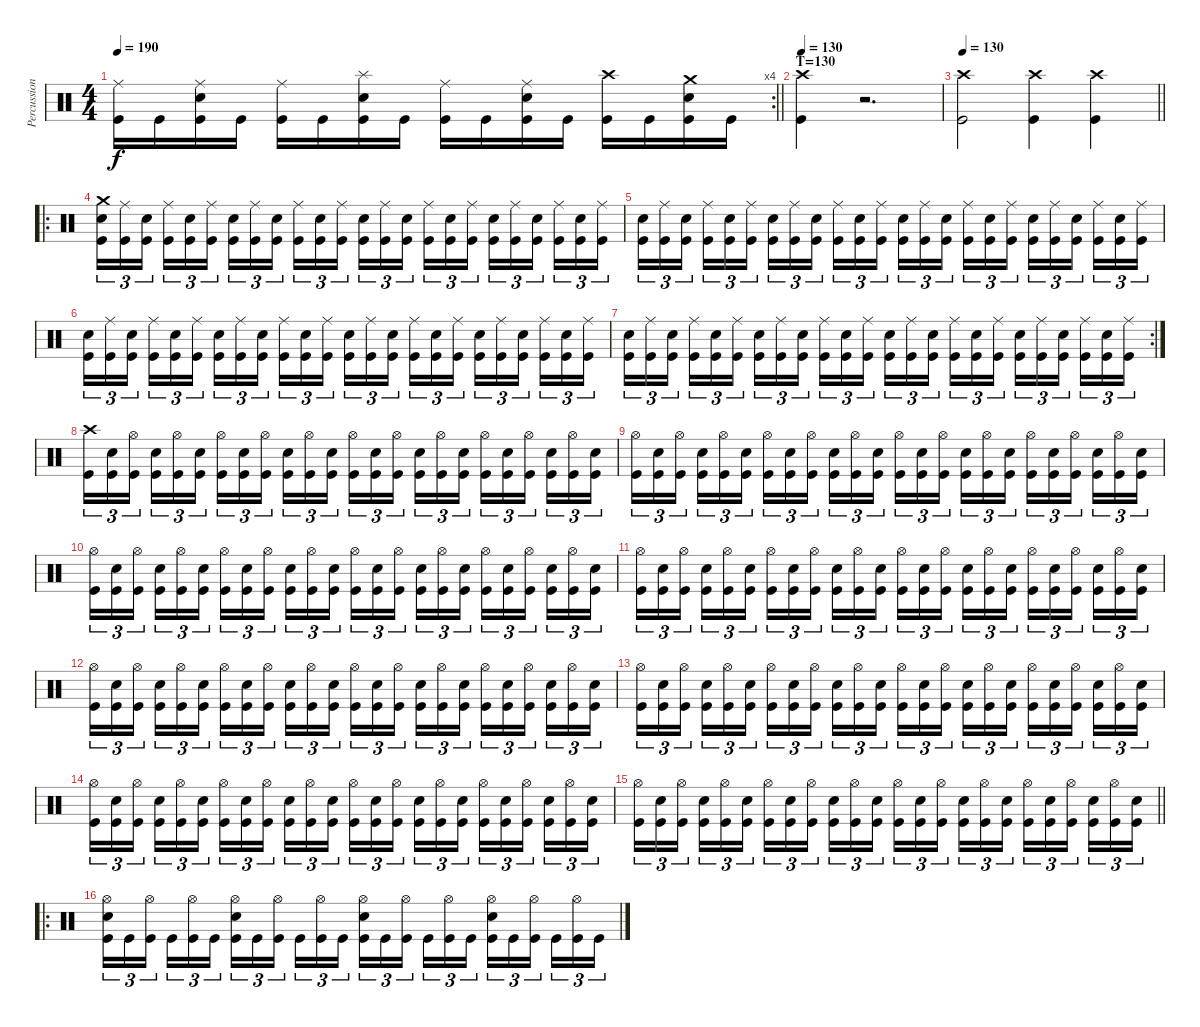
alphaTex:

\track ("Percussion" "Percussion") {instrument percussion}
\staff {score}
\articulation defaults
\rc 4
\ts (4 4)
\tempo 190
\clef neutral
\barLineRight lightlight
\ks c
("Ride (middle)" "Kick (hit)").16{dy f} "Kick (hit)".16 ("Ride (middle)" "Electric Snare (hit)" "Kick (hit)").16 "Kick (hit)".16 ("Ride (middle)" "Kick (hit)").16 "Kick (hit)".16 ("Splash (hit)" "Electric Snare (hit)" "Kick (hit)").16 "Kick (hit)".16 ("Ride (middle)" "Kick (hit)").16 "Kick (hit)".16 ("Ride (middle)" "Electric Snare (hit)" "Kick (hit)").16 "Kick (hit)".16 ("Crash high (hit)" "Kick (hit)").16 "Kick (hit)".16 ("Crash medium (hit)" "Electric Snare (hit)" "Kick (hit)").16 "Kick (hit)".16 |
\section ("" "T=130")
\tempo 130
("Crash high (hit)" "Kick (hit)").4 r.2{d} |
\tempo 130
\barLineRight lightlight
("Crash high (hit)" "Kick (hit)").2 ("Crash high (hit)" "Kick (hit)").4 ("Crash high (hit)" "Kick (hit)").4 |
\ro
("Crash medium (hit)" "Electric Snare (hit)" "Kick (hit)").16{tu (3 2)} ("Ride (middle)" "Kick (hit)").16{tu (3 2)} ("Electric Snare (hit)" "Kick (hit)").16{tu (3 2) beam splitsecondary} ("Ride (middle)" "Kick (hit)").16{tu (3 2)} ("Electric Snare (hit)" "Kick (hit)").16{tu (3 2)} ("Ride (middle)" "Kick (hit)").16{tu (3 2)} ("Electric Snare (hit)" "Kick (hit)").16{tu (3 2)} ("Ride (middle)" "Kick (hit)").16{tu (3 2)} ("Electric Snare (hit)" "Kick (hit)").16{tu (3 2) beam splitsecondary} ("Ride (middle)" "Kick (hit)").16{tu (3 2)} ("Electric Snare (hit)" "Kick (hit)").16{tu (3 2)} ("Ride (middle)" "Kick (hit)").16{tu (3 2)} ("Electric Snare (hit)" "Kick (hit)").16{tu (3 2)} ("Ride (middle)" "Kick (hit)").16{tu (3 2)} ("Electric Snare (hit)" "Kick (hit)").16{tu (3 2) beam splitsecondary} ("Ride (middle)" "Kick (hit)").16{tu (3 2)} ("Electric Snare (hit)" "Kick (hit)").16{tu (3 2)} ("Ride (middle)" "Kick (hit)").16{tu (3 2)} ("Electric Snare (hit)" "Kick (hit)").16{tu (3 2)} ("Ride (middle)" "Kick (hit)").16{tu (3 2)} ("Electric Snare (hit)" "Kick (hit)").16{tu (3 2) beam splitsecondary} ("Ride (middle)" "Kick (hit)").16{tu (3 2)} ("Electric Snare (hit)" "Kick (hit)").16{tu (3 2)} ("Ride (middle)" "Kick (hit)").16{tu (3 2)} |
("Electric Snare (hit)" "Kick (hit)").16{tu (3 2)} ("Ride (middle)" "Kick (hit)").16{tu (3 2)} ("Electric Snare (hit)" "Kick (hit)").16{tu (3 2) beam splitsecondary} ("Ride (middle)" "Kick (hit)").16{tu (3 2)} ("Electric Snare (hit)" "Kick (hit)").16{tu (3 2)} ("Ride (middle)" "Kick (hit)").16{tu (3 2)} ("Electric Snare (hit)" "Kick (hit)").16{tu (3 2)} ("Ride (middle)" "Kick (hit)").16{tu (3 2)} ("Electric Snare (hit)" "Kick (hit)").16{tu (3 2) beam splitsecondary} ("Ride (middle)" "Kick (hit)").16{tu (3 2)} ("Electric Snare (hit)" "Kick (hit)").16{tu (3 2)} ("Ride (middle)" "Kick (hit)").16{tu (3 2)} ("Electric Snare (hit)" "Kick (hit)").16{tu (3 2)} ("Ride (middle)" "Kick (hit)").16{tu (3 2)} ("Electric Snare (hit)" "Kick (hit)").16{tu (3 2) beam splitsecondary} ("Ride (middle)" "Kick (hit)").16{tu (3 2)} ("Electric Snare (hit)" "Kick (hit)").16{tu (3 2)} ("Ride (middle)" "Kick (hit)").16{tu (3 2)} ("Electric Snare (hit)" "Kick (hit)").16{tu (3 2)} ("Ride (middle)" "Kick (hit)").16{tu (3 2)} ("Electric Snare (hit)" "Kick (hit)").16{tu (3 2) beam splitsecondary} ("Ride (middle)" "Kick (hit)").16{tu (3 2)} ("Electric Snare (hit)" "Kick (hit)").16{tu (3 2)} ("Ride (middle)" "Kick (hit)").16{tu (3 2)} |
("Electric Snare (hit)" "Kick (hit)").16{tu (3 2)} ("Ride (middle)" "Kick (hit)").16{tu (3 2)} ("Electric Snare (hit)" "Kick (hit)").16{tu (3 2) beam splitsecondary} ("Ride (middle)" "Kick (hit)").16{tu (3 2)} ("Electric Snare (hit)" "Kick (hit)").16{tu (3 2)} ("Ride (middle)" "Kick (hit)").16{tu (3 2)} ("Electric Snare (hit)" "Kick (hit)").16{tu (3 2)} ("Ride (middle)" "Kick (hit)").16{tu (3 2)} ("Electric Snare (hit)" "Kick (hit)").16{tu (3 2) beam splitsecondary} ("Ride (middle)" "Kick (hit)").16{tu (3 2)} ("Electric Snare (hit)" "Kick (hit)").16{tu (3 2)} ("Ride (middle)" "Kick (hit)").16{tu (3 2)} ("Electric Snare (hit)" "Kick (hit)").16{tu (3 2)} ("Ride (middle)" "Kick (hit)").16{tu (3 2)} ("Electric Snare (hit)" "Kick (hit)").16{tu (3 2) beam splitsecondary} ("Ride (middle)" "Kick (hit)").16{tu (3 2)} ("Electric Snare (hit)" "Kick (hit)").16{tu (3 2)} ("Ride (middle)" "Kick (hit)").16{tu (3 2)} ("Electric Snare (hit)" "Kick (hit)").16{tu (3 2)} ("Ride (middle)" "Kick (hit)").16{tu (3 2)} ("Electric Snare (hit)" "Kick (hit)").16{tu (3 2) beam splitsecondary} ("Ride (middle)" "Kick (hit)").16{tu (3 2)} ("Electric Snare (hit)" "Kick (hit)").16{tu (3 2)} ("Ride (middle)" "Kick (hit)").16{tu (3 2)} |
\rc 2
("Electric Snare (hit)" "Kick (hit)").16{tu (3 2)} ("Ride (middle)" "Kick (hit)").16{tu (3 2)} ("Electric Snare (hit)" "Kick (hit)").16{tu (3 2) beam splitsecondary} ("Ride (middle)" "Kick (hit)").16{tu (3 2)} ("Electric Snare (hit)" "Kick (hit)").16{tu (3 2)} ("Ride (middle)" "Kick (hit)").16{tu (3 2)} ("Electric Snare (hit)" "Kick (hit)").16{tu (3 2)} ("Ride (middle)" "Kick (hit)").16{tu (3 2)} ("Electric Snare (hit)" "Kick (hit)").16{tu (3 2) beam splitsecondary} ("Ride (middle)" "Kick (hit)").16{tu (3 2)} ("Electric Snare (hit)" "Kick (hit)").16{tu (3 2)} ("Ride (middle)" "Kick (hit)").16{tu (3 2)} ("Electric Snare (hit)" "Kick (hit)").16{tu (3 2)} ("Ride (middle)" "Kick (hit)").16{tu (3 2)} ("Electric Snare (hit)" "Kick (hit)").16{tu (3 2) beam splitsecondary} ("Ride (middle)" "Kick (hit)").16{tu (3 2)} ("Electric Snare (hit)" "Kick (hit)").16{tu (3 2)} ("Ride (middle)" "Kick (hit)").16{tu (3 2)} ("Electric Snare (hit)" "Kick (hit)").16{tu (3 2)} ("Ride (middle)" "Kick (hit)").16{tu (3 2)} ("Electric Snare (hit)" "Kick (hit)").16{tu (3 2) beam splitsecondary} ("Ride (middle)" "Kick (hit)").16{tu (3 2)} ("Electric Snare (hit)" "Kick (hit)").16{tu (3 2)} ("Ride (middle)" "Kick (hit)").16{tu (3 2)} |
("Crash high (hit)" "Kick (hit)").16{tu (3 2)} ("Electric Snare (hit)" "Kick (hit)").16{tu (3 2)} ("Hi-Hat (open)" "Kick (hit)").16{tu (3 2) beam splitsecondary} ("Electric Snare (hit)" "Kick (hit)").16{tu (3 2)} ("Hi-Hat (open)" "Kick (hit)").16{tu (3 2)} ("Electric Snare (hit)" "Kick (hit)").16{tu (3 2)} ("Hi-Hat (open)" "Kick (hit)").16{tu (3 2)} ("Electric Snare (hit)" "Kick (hit)").16{tu (3 2)} ("Hi-Hat (open)" "Kick (hit)").16{tu (3 2) beam splitsecondary} ("Electric Snare (hit)" "Kick (hit)").16{tu (3 2)} ("Hi-Hat (open)" "Kick (hit)").16{tu (3 2)} ("Electric Snare (hit)" "Kick (hit)").16{tu (3 2)} ("Hi-Hat (open)" "Kick (hit)").16{tu (3 2)} ("Electric Snare (hit)" "Kick (hit)").16{tu (3 2)} ("Hi-Hat (open)" "Kick (hit)").16{tu (3 2) beam splitsecondary} ("Electric Snare (hit)" "Kick (hit)").16{tu (3 2)} ("Hi-Hat (open)" "Kick (hit)").16{tu (3 2)} ("Electric Snare (hit)" "Kick (hit)").16{tu (3 2)} ("Hi-Hat (open)" "Kick (hit)").16{tu (3 2)} ("Electric Snare (hit)" "Kick (hit)").16{tu (3 2)} ("Hi-Hat (open)" "Kick (hit)").16{tu (3 2) beam splitsecondary} ("Electric Snare (hit)" "Kick (hit)").16{tu (3 2)} ("Hi-Hat (open)" "Kick (hit)").16{tu (3 2)} ("Electric Snare (hit)" "Kick (hit)").16{tu (3 2)} |
("Hi-Hat (open)" "Kick (hit)").16{tu (3 2)} ("Electric Snare (hit)" "Kick (hit)").16{tu (3 2)} ("Hi-Hat (open)" "Kick (hit)").16{tu (3 2) beam splitsecondary} ("Electric Snare (hit)" "Kick (hit)").16{tu (3 2)} ("Hi-Hat (open)" "Kick (hit)").16{tu (3 2)} ("Electric Snare (hit)" "Kick (hit)").16{tu (3 2)} ("Hi-Hat (open)" "Kick (hit)").16{tu (3 2)} ("Electric Snare (hit)" "Kick (hit)").16{tu (3 2)} ("Hi-Hat (open)" "Kick (hit)").16{tu (3 2) beam splitsecondary} ("Electric Snare (hit)" "Kick (hit)").16{tu (3 2)} ("Hi-Hat (open)" "Kick (hit)").16{tu (3 2)} ("Electric Snare (hit)" "Kick (hit)").16{tu (3 2)} ("Hi-Hat (open)" "Kick (hit)").16{tu (3 2)} ("Electric Snare (hit)" "Kick (hit)").16{tu (3 2)} ("Hi-Hat (open)" "Kick (hit)").16{tu (3 2) beam splitsecondary} ("Electric Snare (hit)" "Kick (hit)").16{tu (3 2)} ("Hi-Hat (open)" "Kick (hit)").16{tu (3 2)} ("Electric Snare (hit)" "Kick (hit)").16{tu (3 2)} ("Hi-Hat (open)" "Kick (hit)").16{tu (3 2)} ("Electric Snare (hit)" "Kick (hit)").16{tu (3 2)} ("Hi-Hat (open)" "Kick (hit)").16{tu (3 2) beam splitsecondary} ("Electric Snare (hit)" "Kick (hit)").16{tu (3 2)} ("Hi-Hat (open)" "Kick (hit)").16{tu (3 2)} ("Electric Snare (hit)" "Kick (hit)").16{tu (3 2)} |
("Hi-Hat (open)" "Kick (hit)").16{tu (3 2)} ("Electric Snare (hit)" "Kick (hit)").16{tu (3 2)} ("Hi-Hat (open)" "Kick (hit)").16{tu (3 2) beam splitsecondary} ("Electric Snare (hit)" "Kick (hit)").16{tu (3 2)} ("Hi-Hat (open)" "Kick (hit)").16{tu (3 2)} ("Electric Snare (hit)" "Kick (hit)").16{tu (3 2)} ("Hi-Hat (open)" "Kick (hit)").16{tu (3 2)} ("Electric Snare (hit)" "Kick (hit)").16{tu (3 2)} ("Hi-Hat (open)" "Kick (hit)").16{tu (3 2) beam splitsecondary} ("Electric Snare (hit)" "Kick (hit)").16{tu (3 2)} ("Hi-Hat (open)" "Kick (hit)").16{tu (3 2)} ("Electric Snare (hit)" "Kick (hit)").16{tu (3 2)} ("Hi-Hat (open)" "Kick (hit)").16{tu (3 2)} ("Electric Snare (hit)" "Kick (hit)").16{tu (3 2)} ("Hi-Hat (open)" "Kick (hit)").16{tu (3 2) beam splitsecondary} ("Electric Snare (hit)" "Kick (hit)").16{tu (3 2)} ("Hi-Hat (open)" "Kick (hit)").16{tu (3 2)} ("Electric Snare (hit)" "Kick (hit)").16{tu (3 2)} ("Hi-Hat (open)" "Kick (hit)").16{tu (3 2)} ("Electric Snare (hit)" "Kick (hit)").16{tu (3 2)} ("Hi-Hat (open)" "Kick (hit)").16{tu (3 2) beam splitsecondary} ("Electric Snare (hit)" "Kick (hit)").16{tu (3 2)} ("Hi-Hat (open)" "Kick (hit)").16{tu (3 2)} ("Electric Snare (hit)" "Kick (hit)").16{tu (3 2)} |
("Hi-Hat (open)" "Kick (hit)").16{tu (3 2)} ("Electric Snare (hit)" "Kick (hit)").16{tu (3 2)} ("Hi-Hat (open)" "Kick (hit)").16{tu (3 2) beam splitsecondary} ("Electric Snare (hit)" "Kick (hit)").16{tu (3 2)} ("Hi-Hat (open)" "Kick (hit)").16{tu (3 2)} ("Electric Snare (hit)" "Kick (hit)").16{tu (3 2)} ("Hi-Hat (open)" "Kick (hit)").16{tu (3 2)} ("Electric Snare (hit)" "Kick (hit)").16{tu (3 2)} ("Hi-Hat (open)" "Kick (hit)").16{tu (3 2) beam splitsecondary} ("Electric Snare (hit)" "Kick (hit)").16{tu (3 2)} ("Hi-Hat (open)" "Kick (hit)").16{tu (3 2)} ("Electric Snare (hit)" "Kick (hit)").16{tu (3 2)} ("Hi-Hat (open)" "Kick (hit)").16{tu (3 2)} ("Electric Snare (hit)" "Kick (hit)").16{tu (3 2)} ("Hi-Hat (open)" "Kick (hit)").16{tu (3 2) beam splitsecondary} ("Electric Snare (hit)" "Kick (hit)").16{tu (3 2)} ("Hi-Hat (open)" "Kick (hit)").16{tu (3 2)} ("Electric Snare (hit)" "Kick (hit)").16{tu (3 2)} ("Hi-Hat (open)" "Kick (hit)").16{tu (3 2)} ("Electric Snare (hit)" "Kick (hit)").16{tu (3 2)} ("Hi-Hat (open)" "Kick (hit)").16{tu (3 2) beam splitsecondary} ("Electric Snare (hit)" "Kick (hit)").16{tu (3 2)} ("Hi-Hat (open)" "Kick (hit)").16{tu (3 2)} ("Electric Snare (hit)" "Kick (hit)").16{tu (3 2)} |
("Hi-Hat (open)" "Kick (hit)").16{tu (3 2)} ("Electric Snare (hit)" "Kick (hit)").16{tu (3 2)} ("Hi-Hat (open)" "Kick (hit)").16{tu (3 2) beam splitsecondary} ("Electric Snare (hit)" "Kick (hit)").16{tu (3 2)} ("Hi-Hat (open)" "Kick (hit)").16{tu (3 2)} ("Electric Snare (hit)" "Kick (hit)").16{tu (3 2)} ("Hi-Hat (open)" "Kick (hit)").16{tu (3 2)} ("Electric Snare (hit)" "Kick (hit)").16{tu (3 2)} ("Hi-Hat (open)" "Kick (hit)").16{tu (3 2) beam splitsecondary} ("Electric Snare (hit)" "Kick (hit)").16{tu (3 2)} ("Hi-Hat (open)" "Kick (hit)").16{tu (3 2)} ("Electric Snare (hit)" "Kick (hit)").16{tu (3 2)} ("Hi-Hat (open)" "Kick (hit)").16{tu (3 2)} ("Electric Snare (hit)" "Kick (hit)").16{tu (3 2)} ("Hi-Hat (open)" "Kick (hit)").16{tu (3 2) beam splitsecondary} ("Electric Snare (hit)" "Kick (hit)").16{tu (3 2)} ("Hi-Hat (open)" "Kick (hit)").16{tu (3 2)} ("Electric Snare (hit)" "Kick (hit)").16{tu (3 2)} ("Hi-Hat (open)" "Kick (hit)").16{tu (3 2)} ("Electric Snare (hit)" "Kick (hit)").16{tu (3 2)} ("Hi-Hat (open)" "Kick (hit)").16{tu (3 2) beam splitsecondary} ("Electric Snare (hit)" "Kick (hit)").16{tu (3 2)} ("Hi-Hat (open)" "Kick (hit)").16{tu (3 2)} ("Electric Snare (hit)" "Kick (hit)").16{tu (3 2)} |
("Hi-Hat (open)" "Kick (hit)").16{tu (3 2)} ("Electric Snare (hit)" "Kick (hit)").16{tu (3 2)} ("Hi-Hat (open)" "Kick (hit)").16{tu (3 2) beam splitsecondary} ("Electric Snare (hit)" "Kick (hit)").16{tu (3 2)} ("Hi-Hat (open)" "Kick (hit)").16{tu (3 2)} ("Electric Snare (hit)" "Kick (hit)").16{tu (3 2)} ("Hi-Hat (open)" "Kick (hit)").16{tu (3 2)} ("Electric Snare (hit)" "Kick (hit)").16{tu (3 2)} ("Hi-Hat (open)" "Kick (hit)").16{tu (3 2) beam splitsecondary} ("Electric Snare (hit)" "Kick (hit)").16{tu (3 2)} ("Hi-Hat (open)" "Kick (hit)").16{tu (3 2)} ("Electric Snare (hit)" "Kick (hit)").16{tu (3 2)} ("Hi-Hat (open)" "Kick (hit)").16{tu (3 2)} ("Electric Snare (hit)" "Kick (hit)").16{tu (3 2)} ("Hi-Hat (open)" "Kick (hit)").16{tu (3 2) beam splitsecondary} ("Electric Snare (hit)" "Kick (hit)").16{tu (3 2)} ("Hi-Hat (open)" "Kick (hit)").16{tu (3 2)} ("Electric Snare (hit)" "Kick (hit)").16{tu (3 2)} ("Hi-Hat (open)" "Kick (hit)").16{tu (3 2)} ("Electric Snare (hit)" "Kick (hit)").16{tu (3 2)} ("Hi-Hat (open)" "Kick (hit)").16{tu (3 2) beam splitsecondary} ("Electric Snare (hit)" "Kick (hit)").16{tu (3 2)} ("Hi-Hat (open)" "Kick (hit)").16{tu (3 2)} ("Electric Snare (hit)" "Kick (hit)").16{tu (3 2)} |
("Hi-Hat (open)" "Kick (hit)").16{tu (3 2)} ("Electric Snare (hit)" "Kick (hit)").16{tu (3 2)} ("Hi-Hat (open)" "Kick (hit)").16{tu (3 2) beam splitsecondary} ("Electric Snare (hit)" "Kick (hit)").16{tu (3 2)} ("Hi-Hat (open)" "Kick (hit)").16{tu (3 2)} ("Electric Snare (hit)" "Kick (hit)").16{tu (3 2)} ("Hi-Hat (open)" "Kick (hit)").16{tu (3 2)} ("Electric Snare (hit)" "Kick (hit)").16{tu (3 2)} ("Hi-Hat (open)" "Kick (hit)").16{tu (3 2) beam splitsecondary} ("Electric Snare (hit)" "Kick (hit)").16{tu (3 2)} ("Hi-Hat (open)" "Kick (hit)").16{tu (3 2)} ("Electric Snare (hit)" "Kick (hit)").16{tu (3 2)} ("Hi-Hat (open)" "Kick (hit)").16{tu (3 2)} ("Electric Snare (hit)" "Kick (hit)").16{tu (3 2)} ("Hi-Hat (open)" "Kick (hit)").16{tu (3 2) beam splitsecondary} ("Electric Snare (hit)" "Kick (hit)").16{tu (3 2)} ("Hi-Hat (open)" "Kick (hit)").16{tu (3 2)} ("Electric Snare (hit)" "Kick (hit)").16{tu (3 2)} ("Hi-Hat (open)" "Kick (hit)").16{tu (3 2)} ("Electric Snare (hit)" "Kick (hit)").16{tu (3 2)} ("Hi-Hat (open)" "Kick (hit)").16{tu (3 2) beam splitsecondary} ("Electric Snare (hit)" "Kick (hit)").16{tu (3 2)} ("Hi-Hat (open)" "Kick (hit)").16{tu (3 2)} ("Electric Snare (hit)" "Kick (hit)").16{tu (3 2)} |
\barLineRight lightlight
("Hi-Hat (open)" "Kick (hit)").16{tu (3 2)} ("Electric Snare (hit)" "Kick (hit)").16{tu (3 2)} ("Hi-Hat (open)" "Kick (hit)").16{tu (3 2) beam splitsecondary} ("Electric Snare (hit)" "Kick (hit)").16{tu (3 2)} ("Hi-Hat (open)" "Kick (hit)").16{tu (3 2)} ("Electric Snare (hit)" "Kick (hit)").16{tu (3 2)} ("Hi-Hat (open)" "Kick (hit)").16{tu (3 2)} ("Electric Snare (hit)" "Kick (hit)").16{tu (3 2)} ("Hi-Hat (open)" "Kick (hit)").16{tu (3 2) beam splitsecondary} ("Electric Snare (hit)" "Kick (hit)").16{tu (3 2)} ("Hi-Hat (open)" "Kick (hit)").16{tu (3 2)} ("Electric Snare (hit)" "Kick (hit)").16{tu (3 2)} ("Hi-Hat (open)" "Kick (hit)").16{tu (3 2)} ("Electric Snare (hit)" "Kick (hit)").16{tu (3 2)} ("Hi-Hat (open)" "Kick (hit)").16{tu (3 2) beam splitsecondary} ("Electric Snare (hit)" "Kick (hit)").16{tu (3 2)} ("Hi-Hat (open)" "Kick (hit)").16{tu (3 2)} ("Electric Snare (hit)" "Kick (hit)").16{tu (3 2)} ("Hi-Hat (open)" "Kick (hit)").16{tu (3 2)} ("Electric Snare (hit)" "Kick (hit)").16{tu (3 2)} ("Hi-Hat (open)" "Kick (hit)").16{tu (3 2) beam splitsecondary} ("Electric Snare (hit)" "Kick (hit)").16{tu (3 2)} ("Hi-Hat (open)" "Kick (hit)").16{tu (3 2)} ("Electric Snare (hit)" "Kick (hit)").16{tu (3 2)} |
\ro
("Hi-Hat (open)" "Electric Snare (hit)" "Kick (hit)").16{tu (3 2)} "Kick (hit)".16{tu (3 2)} ("Hi-Hat (open)" "Kick (hit)").16{tu (3 2) beam splitsecondary} "Kick (hit)".16{tu (3 2)} ("Hi-Hat (open)" "Kick (hit)").16{tu (3 2)} "Kick (hit)".16{tu (3 2)} ("Hi-Hat (open)" "Electric Snare (hit)" "Kick (hit)").16{tu (3 2)} "Kick (hit)".16{tu (3 2)} ("Hi-Hat (open)" "Kick (hit)").16{tu (3 2) beam splitsecondary} "Kick (hit)".16{tu (3 2)} ("Hi-Hat (open)" "Kick (hit)").16{tu (3 2)} "Kick (hit)".16{tu (3 2)} ("Hi-Hat (open)" "Electric Snare (hit)" "Kick (hit)").16{tu (3 2)} "Kick (hit)".16{tu (3 2)} ("Hi-Hat (open)" "Kick (hit)").16{tu (3 2) beam splitsecondary} "Kick (hit)".16{tu (3 2)} ("Hi-Hat (open)" "Kick (hit)").16{tu (3 2)} "Kick (hit)".16{tu (3 2)} ("Hi-Hat (open)" "Electric Snare (hit)" "Kick (hit)").16{tu (3 2)} "Kick (hit)".16{tu (3 2)} ("Hi-Hat (open)" "Kick (hit)").16{tu (3 2) beam splitsecondary} "Kick (hit)".16{tu (3 2)} ("Hi-Hat (open)" "Kick (hit)").16{tu (3 2)} "Kick (hit)".16{tu (3 2)}
